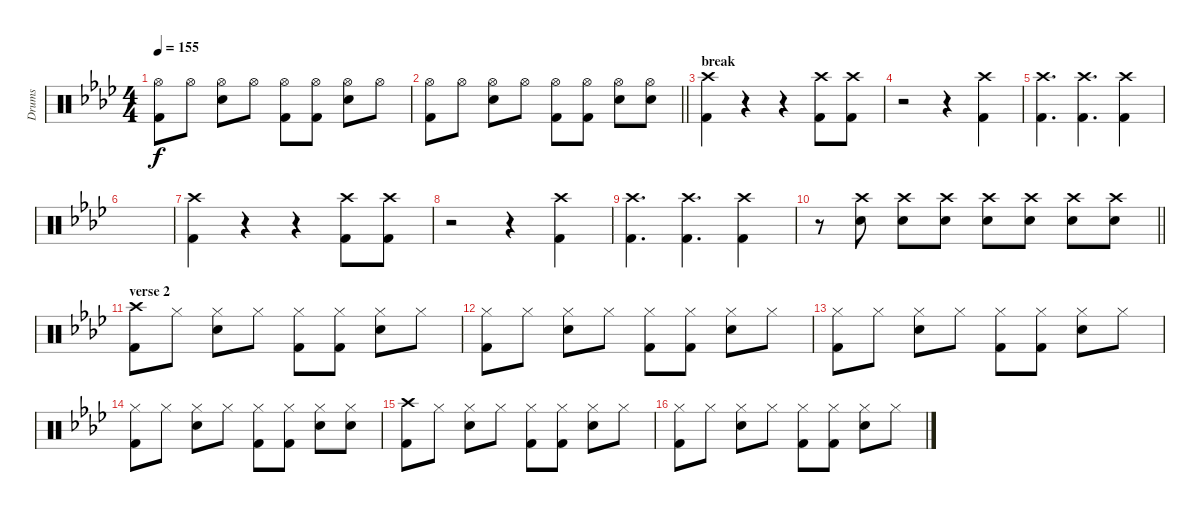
\track ("Drums" "Drums") {instrument percussion}
\staff {score}
\articulation defaults
\ts (4 4)
\tempo 155
\clef neutral
\ks fminor
("Hi-Hat (open)" "Kick (hit) 2").8{dy f} "Hi-Hat (open)".8 ("Hi-Hat (open)" "Snare (hit) 2").8 "Hi-Hat (open)".8 ("Hi-Hat (open)" "Kick (hit) 2").8 ("Hi-Hat (open)" "Kick (hit) 2").8 ("Hi-Hat (open)" "Snare (hit) 2").8 "Hi-Hat (open)".8 |
\barLineRight lightlight
("Hi-Hat (open)" "Kick (hit) 2").8 "Hi-Hat (open)".8 ("Hi-Hat (open)" "Snare (hit) 2").8 "Hi-Hat (open)".8 ("Hi-Hat (open)" "Kick (hit) 2").8 ("Hi-Hat (open)" "Kick (hit) 2").8 ("Hi-Hat (open)" "Snare (hit) 2").8 ("Hi-Hat (open)" "Snare (hit) 2").8 |
\section ("" "break")
("Crash high (hit)" "Kick (hit) 2").4 r.4 r.4 ("Crash high (hit)" "Kick (hit) 2").8 ("Crash high (hit)" "Kick (hit) 2").8 |
r.2 r.4 ("Crash high (hit)" "Kick (hit) 2").4 |
("Crash high (hit)" "Kick (hit) 2").4{d} ("Crash high (hit)" "Kick (hit) 2").4{d} ("Crash high (hit)" "Kick (hit) 2").4 |
|
("Crash high (hit)" "Kick (hit) 2").4 r.4 r.4 ("Crash high (hit)" "Kick (hit) 2").8 ("Crash high (hit)" "Kick (hit) 2").8 |
r.2 r.4 ("Crash high (hit)" "Kick (hit) 2").4 |
("Crash high (hit)" "Kick (hit) 2").4{d} ("Crash high (hit)" "Kick (hit) 2").4{d} ("Crash high (hit)" "Kick (hit) 2").4 |
\barLineRight lightlight
r.8 ("Crash high (hit)" "Snare (hit) 2").8 ("Crash high (hit)" "Snare (hit) 2").8 ("Crash high (hit)" "Snare (hit) 2").8 ("Crash high (hit)" "Snare (hit) 2").8 ("Crash high (hit)" "Snare (hit) 2").8 ("Crash high (hit)" "Snare (hit) 2").8 ("Crash high (hit)" "Snare (hit) 2").8 |
\section ("" "verse 2")
("Crash high (hit)" "Kick (hit) 2").8 "Hi-Hat (closed)".8 ("Hi-Hat (closed)" "Snare (hit) 2").8 "Hi-Hat (closed)".8 ("Hi-Hat (closed)" "Kick (hit) 2").8 ("Hi-Hat (closed)" "Kick (hit) 2").8 ("Hi-Hat (closed)" "Snare (hit) 2").8 "Hi-Hat (closed)".8 |
("Hi-Hat (closed)" "Kick (hit) 2").8 "Hi-Hat (closed)".8 ("Hi-Hat (closed)" "Snare (hit) 2").8 "Hi-Hat (closed)".8 ("Hi-Hat (closed)" "Kick (hit) 2").8 ("Hi-Hat (closed)" "Kick (hit) 2").8 ("Hi-Hat (closed)" "Snare (hit) 2").8 "Hi-Hat (closed)".8 |
("Hi-Hat (closed)" "Kick (hit) 2").8 "Hi-Hat (closed)".8 ("Hi-Hat (closed)" "Snare (hit) 2").8 "Hi-Hat (closed)".8 ("Hi-Hat (closed)" "Kick (hit) 2").8 ("Hi-Hat (closed)" "Kick (hit) 2").8 ("Hi-Hat (closed)" "Snare (hit) 2").8 "Hi-Hat (closed)".8 |
("Hi-Hat (closed)" "Kick (hit) 2").8 "Hi-Hat (closed)".8 ("Hi-Hat (closed)" "Snare (hit) 2").8 "Hi-Hat (closed)".8 ("Hi-Hat (closed)" "Kick (hit) 2").8 ("Hi-Hat (closed)" "Kick (hit) 2").8 ("Hi-Hat (closed)" "Snare (hit) 2").8 ("Hi-Hat (closed)" "Snare (hit) 2").8 |
("Crash high (hit)" "Kick (hit) 2").8 "Hi-Hat (closed)".8 ("Hi-Hat (closed)" "Snare (hit) 2").8 "Hi-Hat (closed)".8 ("Hi-Hat (closed)" "Kick (hit) 2").8 ("Hi-Hat (closed)" "Kick (hit) 2").8 ("Hi-Hat (closed)" "Snare (hit) 2").8 "Hi-Hat (closed)".8 |
("Hi-Hat (closed)" "Kick (hit) 2").8 "Hi-Hat (closed)".8 ("Hi-Hat (closed)" "Snare (hit) 2").8 "Hi-Hat (closed)".8 ("Hi-Hat (closed)" "Kick (hit) 2").8 ("Hi-Hat (closed)" "Kick (hit) 2").8 ("Hi-Hat (closed)" "Snare (hit) 2").8 "Hi-Hat (closed)".8
